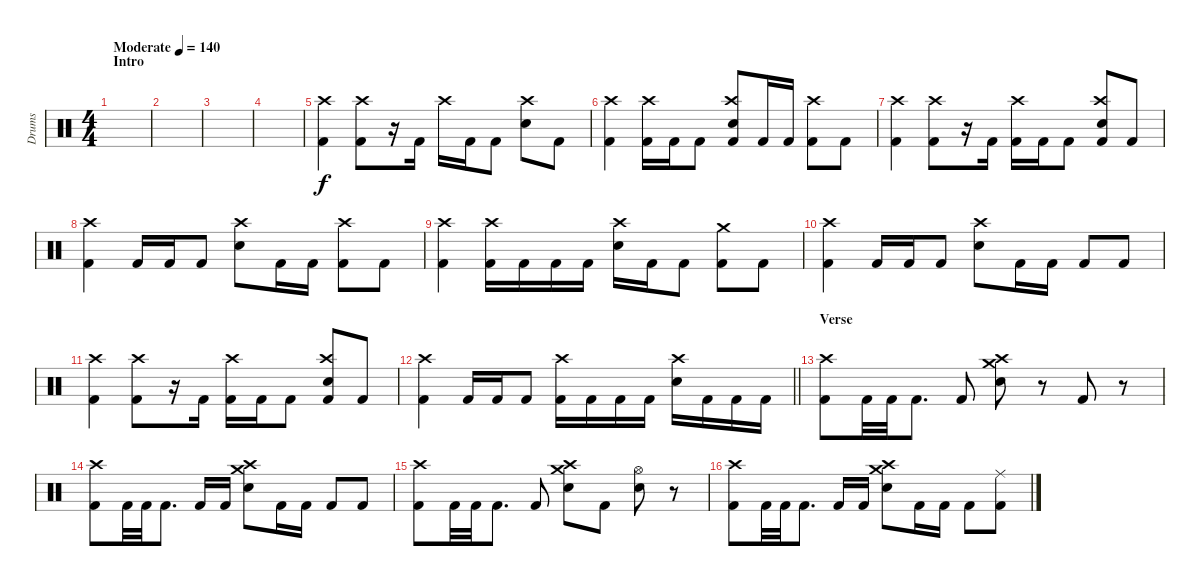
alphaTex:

\track ("Drums" "Drums") {instrument percussion}
\staff {score}
\articulation defaults
\ts (4 4)
\section ("" "Intro")
\tempo (140 "Moderate")
\clef neutral
\ks c
|
|
|
|
("Kick (hit) 2" "Crash high (hit)").4 ("Kick (hit) 2" "Crash high (hit)").8 r.16 "Kick (hit) 2".16 "Crash high (hit)".16 "Kick (hit) 2".16 "Kick (hit) 2".8 ("Crash high (hit)" "Electric Snare (hit)").8 "Kick (hit) 2".8 |
("Kick (hit) 2" "Crash high (hit)").4 ("Kick (hit) 2" "Crash high (hit)").16 "Kick (hit) 2".16 "Kick (hit) 2".8 ("Kick (hit) 2" "Crash high (hit)" "Electric Snare (hit)").8 "Kick (hit) 2".16 "Kick (hit) 2".16 ("Kick (hit) 2" "Crash high (hit)").8 "Kick (hit) 2".8 |
("Kick (hit) 2" "Crash high (hit)").4 ("Kick (hit) 2" "Crash high (hit)").8 r.16 "Kick (hit) 2".16 ("Crash high (hit)" "Kick (hit) 2").16 "Kick (hit) 2".16 "Kick (hit) 2".8 ("Kick (hit) 2" "Crash high (hit)" "Electric Snare (hit)").8 "Kick (hit) 2".8 |
("Kick (hit) 2" "Crash high (hit)").4 "Kick (hit) 2".16 "Kick (hit) 2".16 "Kick (hit) 2".8 ("Crash high (hit)" "Electric Snare (hit)").8 "Kick (hit) 2".16 "Kick (hit) 2".16 ("Kick (hit) 2" "Crash high (hit)").8 "Kick (hit) 2".8 |
("Kick (hit) 2" "Crash high (hit)").4 ("Kick (hit) 2" "Crash high (hit)").16 "Kick (hit) 2".16 "Kick (hit) 2".16 "Kick (hit) 2".16 ("Electric Snare (hit)" "Crash high (hit)").16 "Kick (hit) 2".16 "Kick (hit) 2".8 ("Kick (hit) 2" "Crash medium (hit)").8 "Kick (hit) 2".8 |
("Kick (hit) 2" "Crash high (hit)").4 "Kick (hit) 2".16 "Kick (hit) 2".16 "Kick (hit) 2".8 ("Crash high (hit)" "Electric Snare (hit)").8 "Kick (hit) 2".16 "Kick (hit) 2".16 "Kick (hit) 2".8 "Kick (hit) 2".8 |
("Kick (hit) 2" "Crash high (hit)").4 ("Kick (hit) 2" "Crash high (hit)").8 r.16 "Kick (hit) 2".16 ("Crash high (hit)" "Kick (hit) 2").16 "Kick (hit) 2".16 "Kick (hit) 2".8 ("Kick (hit) 2" "Crash high (hit)" "Electric Snare (hit)").8 "Kick (hit) 2".8 |
\barLineRight lightlight
("Kick (hit) 2" "Crash high (hit)").4 "Kick (hit) 2".16 "Kick (hit) 2".16 "Kick (hit) 2".8 ("Kick (hit) 2" "Crash high (hit)").16 "Kick (hit) 2".16 "Kick (hit) 2".16 "Kick (hit) 2".16 ("Electric Snare (hit)" "Crash high (hit)").16 "Kick (hit) 2".16 "Kick (hit) 2".16 "Kick (hit) 2".16 |
\section ("" "Verse")
("Kick (hit) 2" "Crash high (hit)").8 "Kick (hit) 2".32 "Kick (hit) 2".32 "Kick (hit) 2".8{d} "Kick (hit) 2".8 ("Electric Snare (hit)" "Crash high (hit)" "Crash medium (hit)").8 r.8 "Kick (hit) 2".8 r.8 |
("Kick (hit) 2" "Crash high (hit)").8 "Kick (hit) 2".32 "Kick (hit) 2".32 "Kick (hit) 2".8{d} "Kick (hit) 2".16 "Kick (hit) 2".16 ("Electric Snare (hit)" "Crash high (hit)" "Crash medium (hit)").8 "Kick (hit) 2".16 "Kick (hit) 2".16 "Kick (hit) 2".8 "Kick (hit) 2".8 |
("Kick (hit) 2" "Crash high (hit)").8 "Kick (hit) 2".32 "Kick (hit) 2".32 "Kick (hit) 2".8{d} "Kick (hit) 2".8 ("Electric Snare (hit)" "Crash medium (hit)" "Crash high (hit)").8 "Kick (hit) 2".8 ("Hi-Hat (open)" "Electric Snare (hit)").8 r.8 |
("Kick (hit) 2" "Crash high (hit)").8 "Kick (hit) 2".32 "Kick (hit) 2".32 "Kick (hit) 2".8{d} "Kick (hit) 2".16 "Kick (hit) 2".16 ("Electric Snare (hit)" "Crash high (hit)" "Crash medium (hit)").8 "Kick (hit) 2".16 "Kick (hit) 2".16 "Kick (hit) 2".8 ("Kick (hit) 2" "Ride (middle)").8
